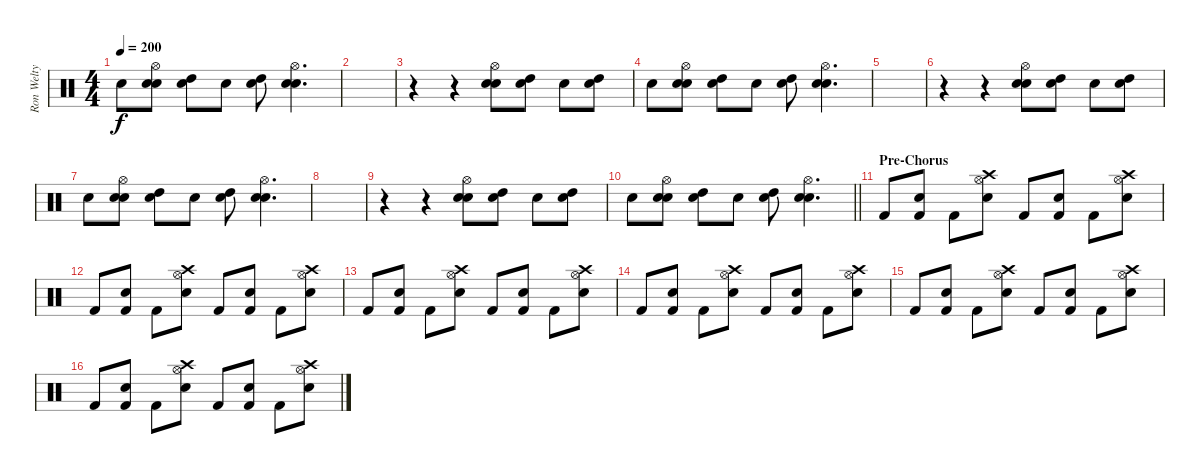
\track ("Ron Welty" "Ron Welty") {instrument percussion}
\staff {score}
\articulation defaults
\ts (4 4)
\tempo 200
\clef neutral
\ks c "Snare (hit) 2".8{dy f}
("Electric Snare (hit)" "Snare (hit) 2" "Hi-Hat (open)").8 ("Snare (hit) 2" "High Tom (hit)").8 "Snare (hit) 2".8 ("Snare (hit) 2" "High Tom (hit)").8 ("Electric Snare (hit)" "Snare (hit) 2" "Hi-Hat (open)").4{d} |
|
r.4 r.4 ("Electric Snare (hit)" "Snare (hit) 2" "Hi-Hat (open)").8 ("Snare (hit) 2" "High Tom (hit)").8 "Snare (hit) 2".8 ("Snare (hit) 2" "High Tom (hit)").8 |
"Snare (hit) 2".8 ("Electric Snare (hit)" "Snare (hit) 2" "Hi-Hat (open)").8 ("Snare (hit) 2" "High Tom (hit)").8 "Snare (hit) 2".8 ("Snare (hit) 2" "High Tom (hit)").8 ("Electric Snare (hit)" "Snare (hit) 2" "Hi-Hat (open)").4{d} |
|
r.4 r.4 ("Electric Snare (hit)" "Snare (hit) 2" "Hi-Hat (open)").8 ("Snare (hit) 2" "High Tom (hit)").8 "Snare (hit) 2".8 ("Snare (hit) 2" "High Tom (hit)").8 |
"Snare (hit) 2".8 ("Electric Snare (hit)" "Snare (hit) 2" "Hi-Hat (open)").8 ("Snare (hit) 2" "High Tom (hit)").8 "Snare (hit) 2".8 ("Snare (hit) 2" "High Tom (hit)").8 ("Electric Snare (hit)" "Snare (hit) 2" "Hi-Hat (open)").4{d} |
|
r.4 r.4 ("Electric Snare (hit)" "Snare (hit) 2" "Hi-Hat (open)").8 ("Snare (hit) 2" "High Tom (hit)").8 "Snare (hit) 2".8 ("Snare (hit) 2" "High Tom (hit)").8 |
\barLineRight lightlight "Snare (hit) 2".8
("Electric Snare (hit)" "Snare (hit) 2" "Hi-Hat (open)").8 ("Snare (hit) 2" "High Tom (hit)").8 "Snare (hit) 2".8 ("Snare (hit) 2" "High Tom (hit)").8 ("Electric Snare (hit)" "Snare (hit) 2" "Hi-Hat (open)").4{d} |
\section ("" "Pre-Chorus")
"Kick (hit) 2".8 ("Kick (hit) 2" "Electric Snare (hit)").8 "Kick (hit) 2".8 ("Snare (hit) 2" "Hi-Hat (open)" "Crash high (hit)").8 "Kick (hit) 2".8 ("Kick (hit) 2" "Electric Snare (hit)").8 "Kick (hit) 2".8 ("Snare (hit) 2" "Hi-Hat (open)" "Crash high (hit)").8 |
"Kick (hit) 2".8 ("Kick (hit) 2" "Electric Snare (hit)").8 "Kick (hit) 2".8 ("Snare (hit) 2" "Hi-Hat (open)" "Crash high (hit)").8 "Kick (hit) 2".8 ("Kick (hit) 2" "Electric Snare (hit)").8 "Kick (hit) 2".8 ("Snare (hit) 2" "Hi-Hat (open)" "Crash high (hit)").8 |
"Kick (hit) 2".8 ("Kick (hit) 2" "Electric Snare (hit)").8 "Kick (hit) 2".8 ("Snare (hit) 2" "Hi-Hat (open)" "Crash high (hit)").8 "Kick (hit) 2".8 ("Kick (hit) 2" "Electric Snare (hit)").8 "Kick (hit) 2".8 ("Snare (hit) 2" "Hi-Hat (open)" "Crash high (hit)").8 |
"Kick (hit) 2".8 ("Kick (hit) 2" "Electric Snare (hit)").8 "Kick (hit) 2".8 ("Snare (hit) 2" "Hi-Hat (open)" "Crash high (hit)").8 "Kick (hit) 2".8 ("Kick (hit) 2" "Electric Snare (hit)").8 "Kick (hit) 2".8 ("Snare (hit) 2" "Hi-Hat (open)" "Crash high (hit)").8 |
"Kick (hit) 2".8 ("Kick (hit) 2" "Electric Snare (hit)").8 "Kick (hit) 2".8 ("Snare (hit) 2" "Hi-Hat (open)" "Crash high (hit)").8 "Kick (hit) 2".8 ("Kick (hit) 2" "Electric Snare (hit)").8 "Kick (hit) 2".8 ("Snare (hit) 2" "Hi-Hat (open)" "Crash high (hit)").8 |
"Kick (hit) 2".8 ("Kick (hit) 2" "Electric Snare (hit)").8 "Kick (hit) 2".8 ("Snare (hit) 2" "Hi-Hat (open)" "Crash high (hit)").8 "Kick (hit) 2".8 ("Kick (hit) 2" "Electric Snare (hit)").8 "Kick (hit) 2".8 ("Snare (hit) 2" "Hi-Hat (open)" "Crash high (hit)").8
